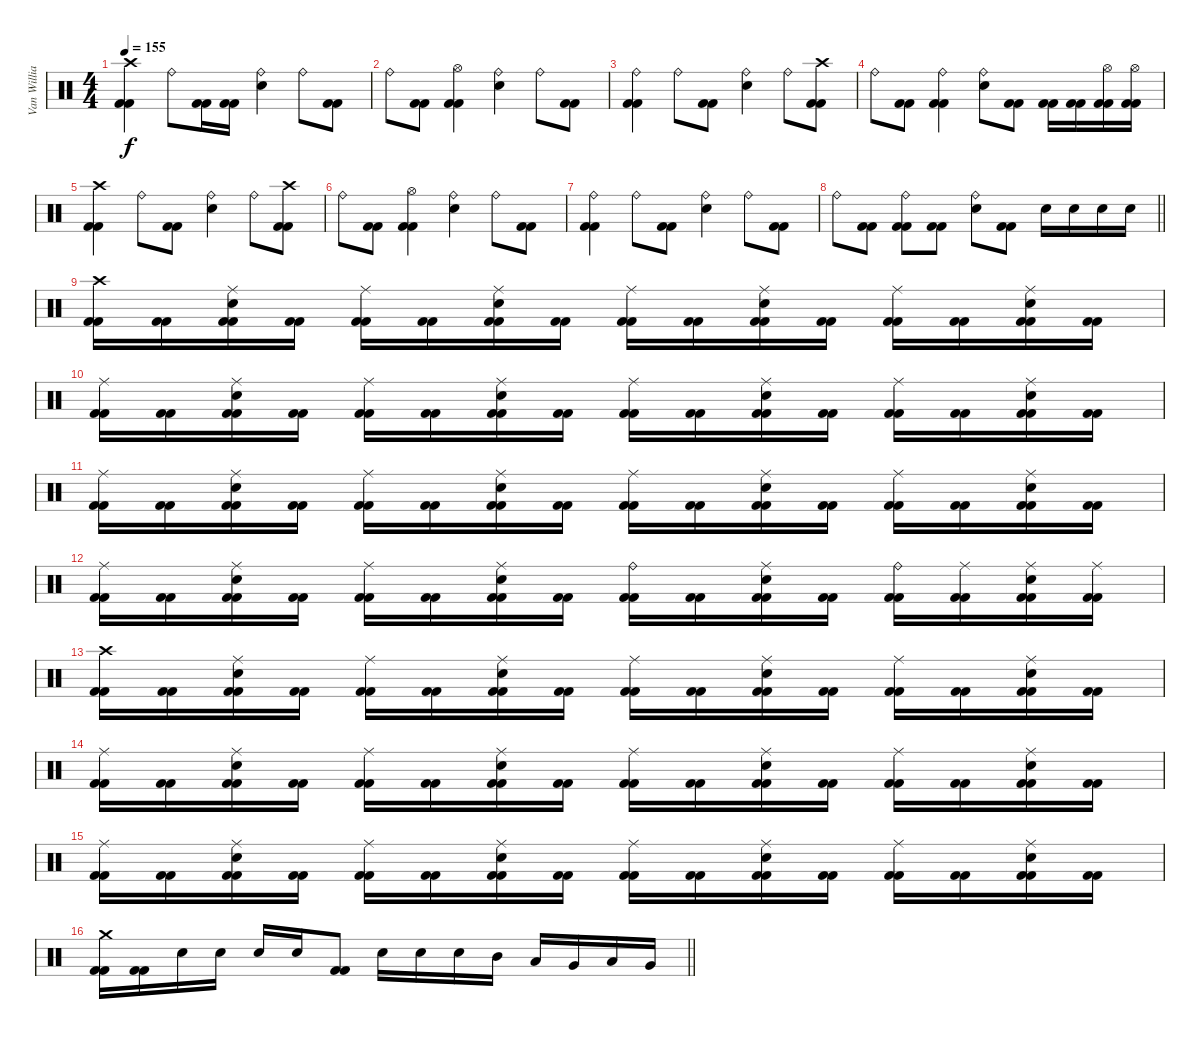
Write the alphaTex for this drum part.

\track ("Van Williams" "Van Willia") {instrument percussion}
\staff {score}
\articulation defaults
\ts (4 4)
\tempo 155
\clef neutral
\ks c
("Crash high (hit)" "Kick (hit) 2" "Kick (hit) 2").4{dy f} "Ride (bell)".8 ("Kick (hit) 2" "Kick (hit) 2").16 ("Kick (hit) 2" "Kick (hit) 2").16 ("Ride (bell)" "Electric Snare (hit)").4 "Ride (bell)".8 ("Kick (hit) 2" "Kick (hit) 2").8 |
"Ride (bell)".8 ("Kick (hit) 2" "Kick (hit) 2").8 ("Hi-Hat (open)" "Kick (hit) 2" "Kick (hit) 2").4 ("Ride (bell)" "Electric Snare (hit)").4 "Ride (bell)".8 ("Kick (hit) 2" "Kick (hit) 2").8 |
("Ride (bell)" "Kick (hit) 2" "Kick (hit) 2").4 "Ride (bell)".8 ("Kick (hit) 2" "Kick (hit) 2").8 ("Ride (bell)" "Electric Snare (hit)").4 "Ride (bell)".8 ("Crash high (hit)" "Kick (hit) 2" "Kick (hit) 2").8 |
"Ride (bell)".8 ("Kick (hit) 2" "Kick (hit) 2").8 ("Ride (bell)" "Kick (hit) 2" "Kick (hit) 2").4 ("Ride (bell)" "Electric Snare (hit)").8 ("Kick (hit) 2" "Kick (hit) 2").8 ("Kick (hit) 2" "Kick (hit) 2").16 ("Kick (hit) 2" "Kick (hit) 2").16 ("Hi-Hat (open)" "Kick (hit) 2" "Kick (hit) 2").16 ("Hi-Hat (open)" "Kick (hit) 2" "Kick (hit) 2").16 |
("Crash high (hit)" "Kick (hit) 2" "Kick (hit) 2").4 "Ride (bell)".8 ("Kick (hit) 2" "Kick (hit) 2").8 ("Ride (bell)" "Electric Snare (hit)").4 "Ride (bell)".8 ("Crash high (hit)" "Kick (hit) 2" "Kick (hit) 2").8 |
"Ride (bell)".8 ("Kick (hit) 2" "Kick (hit) 2").8 ("Hi-Hat (open)" "Kick (hit) 2" "Kick (hit) 2").4 ("Ride (bell)" "Electric Snare (hit)").4 "Ride (bell)".8 ("Kick (hit) 2" "Kick (hit) 2").8 |
("Ride (bell)" "Kick (hit) 2" "Kick (hit) 2").4 "Ride (bell)".8 ("Kick (hit) 2" "Kick (hit) 2").8 ("Ride (bell)" "Electric Snare (hit)").4 "Ride (bell)".8 ("Kick (hit) 2" "Kick (hit) 2").8 |
\barLineRight lightlight "Ride (bell)".8
("Kick (hit) 2" "Kick (hit) 2").8 ("Ride (bell)" "Kick (hit) 2" "Kick (hit) 2").8 ("Kick (hit) 2" "Kick (hit) 2").8 ("Ride (bell)" "Electric Snare (hit)").8 ("Kick (hit) 2" "Kick (hit) 2").8 "Electric Snare (hit)".16 "Electric Snare (hit)".16 "Electric Snare (hit)".16 "Electric Snare (hit)".16 |
("Crash high (hit)" "Kick (hit) 2" "Kick (hit) 2").16 ("Kick (hit) 2" "Kick (hit) 2").16 ("Ride (middle)" "Electric Snare (hit)" "Kick (hit) 2" "Kick (hit) 2").16 ("Kick (hit) 2" "Kick (hit) 2").16 ("Ride (middle)" "Kick (hit) 2" "Kick (hit) 2").16 ("Kick (hit) 2" "Kick (hit) 2").16 ("Ride (middle)" "Electric Snare (hit)" "Kick (hit) 2" "Kick (hit) 2").16 ("Kick (hit) 2" "Kick (hit) 2").16 ("Ride (middle)" "Kick (hit) 2" "Kick (hit) 2").16 ("Kick (hit) 2" "Kick (hit) 2").16 ("Ride (middle)" "Electric Snare (hit)" "Kick (hit) 2" "Kick (hit) 2").16 ("Kick (hit) 2" "Kick (hit) 2").16 ("Ride (middle)" "Kick (hit) 2" "Kick (hit) 2").16 ("Kick (hit) 2" "Kick (hit) 2").16 ("Ride (middle)" "Electric Snare (hit)" "Kick (hit) 2" "Kick (hit) 2").16 ("Kick (hit) 2" "Kick (hit) 2").16 |
("Ride (middle)" "Kick (hit) 2" "Kick (hit) 2").16 ("Kick (hit) 2" "Kick (hit) 2").16 ("Ride (middle)" "Electric Snare (hit)" "Kick (hit) 2" "Kick (hit) 2").16 ("Kick (hit) 2" "Kick (hit) 2").16 ("Ride (middle)" "Kick (hit) 2" "Kick (hit) 2").16 ("Kick (hit) 2" "Kick (hit) 2").16 ("Ride (middle)" "Electric Snare (hit)" "Kick (hit) 2" "Kick (hit) 2").16 ("Kick (hit) 2" "Kick (hit) 2").16 ("Ride (middle)" "Kick (hit) 2" "Kick (hit) 2").16 ("Kick (hit) 2" "Kick (hit) 2").16 ("Ride (middle)" "Electric Snare (hit)" "Kick (hit) 2" "Kick (hit) 2").16 ("Kick (hit) 2" "Kick (hit) 2").16 ("Ride (middle)" "Kick (hit) 2" "Kick (hit) 2").16 ("Kick (hit) 2" "Kick (hit) 2").16 ("Ride (middle)" "Electric Snare (hit)" "Kick (hit) 2" "Kick (hit) 2").16 ("Kick (hit) 2" "Kick (hit) 2").16 |
("Ride (middle)" "Kick (hit) 2" "Kick (hit) 2").16 ("Kick (hit) 2" "Kick (hit) 2").16 ("Ride (middle)" "Electric Snare (hit)" "Kick (hit) 2" "Kick (hit) 2").16 ("Kick (hit) 2" "Kick (hit) 2").16 ("Ride (middle)" "Kick (hit) 2" "Kick (hit) 2").16 ("Kick (hit) 2" "Kick (hit) 2").16 ("Ride (middle)" "Electric Snare (hit)" "Kick (hit) 2" "Kick (hit) 2").16 ("Kick (hit) 2" "Kick (hit) 2").16 ("Ride (middle)" "Kick (hit) 2" "Kick (hit) 2").16 ("Kick (hit) 2" "Kick (hit) 2").16 ("Ride (middle)" "Electric Snare (hit)" "Kick (hit) 2" "Kick (hit) 2").16 ("Kick (hit) 2" "Kick (hit) 2").16 ("Ride (middle)" "Kick (hit) 2" "Kick (hit) 2").16 ("Kick (hit) 2" "Kick (hit) 2").16 ("Ride (middle)" "Electric Snare (hit)" "Kick (hit) 2" "Kick (hit) 2").16 ("Kick (hit) 2" "Kick (hit) 2").16 |
("Ride (middle)" "Kick (hit) 2" "Kick (hit) 2").16 ("Kick (hit) 2" "Kick (hit) 2").16 ("Ride (middle)" "Electric Snare (hit)" "Kick (hit) 2" "Kick (hit) 2").16 ("Kick (hit) 2" "Kick (hit) 2").16 ("Ride (middle)" "Kick (hit) 2" "Kick (hit) 2").16 ("Kick (hit) 2" "Kick (hit) 2").16 ("Ride (middle)" "Electric Snare (hit)" "Kick (hit) 2" "Kick (hit) 2").16 ("Kick (hit) 2" "Kick (hit) 2").16 ("Ride (bell)" "Kick (hit) 2" "Kick (hit) 2").16 ("Kick (hit) 2" "Kick (hit) 2").16 ("Ride (middle)" "Electric Snare (hit)" "Kick (hit) 2" "Kick (hit) 2").16 ("Kick (hit) 2" "Kick (hit) 2").16 ("Ride (bell)" "Kick (hit) 2" "Kick (hit) 2").16 ("Ride (middle)" "Kick (hit) 2" "Kick (hit) 2").16 ("Ride (middle)" "Electric Snare (hit)" "Kick (hit) 2" "Kick (hit) 2").16 ("Ride (middle)" "Kick (hit) 2" "Kick (hit) 2").16 |
("Crash high (hit)" "Kick (hit) 2" "Kick (hit) 2").16 ("Kick (hit) 2" "Kick (hit) 2").16 ("Ride (middle)" "Electric Snare (hit)" "Kick (hit) 2" "Kick (hit) 2").16 ("Kick (hit) 2" "Kick (hit) 2").16 ("Ride (middle)" "Kick (hit) 2" "Kick (hit) 2").16 ("Kick (hit) 2" "Kick (hit) 2").16 ("Ride (middle)" "Electric Snare (hit)" "Kick (hit) 2" "Kick (hit) 2").16 ("Kick (hit) 2" "Kick (hit) 2").16 ("Ride (middle)" "Kick (hit) 2" "Kick (hit) 2").16 ("Kick (hit) 2" "Kick (hit) 2").16 ("Ride (middle)" "Electric Snare (hit)" "Kick (hit) 2" "Kick (hit) 2").16 ("Kick (hit) 2" "Kick (hit) 2").16 ("Ride (middle)" "Kick (hit) 2" "Kick (hit) 2").16 ("Kick (hit) 2" "Kick (hit) 2").16 ("Ride (middle)" "Electric Snare (hit)" "Kick (hit) 2" "Kick (hit) 2").16 ("Kick (hit) 2" "Kick (hit) 2").16 |
("Ride (middle)" "Kick (hit) 2" "Kick (hit) 2").16 ("Kick (hit) 2" "Kick (hit) 2").16 ("Ride (middle)" "Electric Snare (hit)" "Kick (hit) 2" "Kick (hit) 2").16 ("Kick (hit) 2" "Kick (hit) 2").16 ("Ride (middle)" "Kick (hit) 2" "Kick (hit) 2").16 ("Kick (hit) 2" "Kick (hit) 2").16 ("Ride (middle)" "Electric Snare (hit)" "Kick (hit) 2" "Kick (hit) 2").16 ("Kick (hit) 2" "Kick (hit) 2").16 ("Ride (middle)" "Kick (hit) 2" "Kick (hit) 2").16 ("Kick (hit) 2" "Kick (hit) 2").16 ("Ride (middle)" "Electric Snare (hit)" "Kick (hit) 2" "Kick (hit) 2").16 ("Kick (hit) 2" "Kick (hit) 2").16 ("Ride (middle)" "Kick (hit) 2" "Kick (hit) 2").16 ("Kick (hit) 2" "Kick (hit) 2").16 ("Ride (middle)" "Electric Snare (hit)" "Kick (hit) 2" "Kick (hit) 2").16 ("Kick (hit) 2" "Kick (hit) 2").16 |
("Ride (middle)" "Kick (hit) 2" "Kick (hit) 2").16 ("Kick (hit) 2" "Kick (hit) 2").16 ("Ride (middle)" "Electric Snare (hit)" "Kick (hit) 2" "Kick (hit) 2").16 ("Kick (hit) 2" "Kick (hit) 2").16 ("Ride (middle)" "Kick (hit) 2" "Kick (hit) 2").16 ("Kick (hit) 2" "Kick (hit) 2").16 ("Ride (middle)" "Electric Snare (hit)" "Kick (hit) 2" "Kick (hit) 2").16 ("Kick (hit) 2" "Kick (hit) 2").16 ("Ride (middle)" "Kick (hit) 2" "Kick (hit) 2").16 ("Kick (hit) 2" "Kick (hit) 2").16 ("Ride (middle)" "Electric Snare (hit)" "Kick (hit) 2" "Kick (hit) 2").16 ("Kick (hit) 2" "Kick (hit) 2").16 ("Ride (middle)" "Kick (hit) 2" "Kick (hit) 2").16 ("Kick (hit) 2" "Kick (hit) 2").16 ("Ride (middle)" "Electric Snare (hit)" "Kick (hit) 2" "Kick (hit) 2").16 ("Kick (hit) 2" "Kick (hit) 2").16 |
\barLineRight lightlight
("Crash medium (hit)" "Kick (hit) 2" "Kick (hit) 2").16 ("Kick (hit) 2" "Kick (hit) 2").16 "Electric Snare (hit)".16 "Electric Snare (hit)".16 "Electric Snare (hit)".16 "Electric Snare (hit)".16 ("Kick (hit) 2" "Kick (hit) 2").8 "Electric Snare (hit)".16 "Electric Snare (hit)".16 "Electric Snare (hit)".16 "Mid Tom (hit)".16 "Low Tom (hit)".16 "Very Low Tom (hit)".16 "Low Tom (hit)".16 "Very Low Tom (hit)".16
